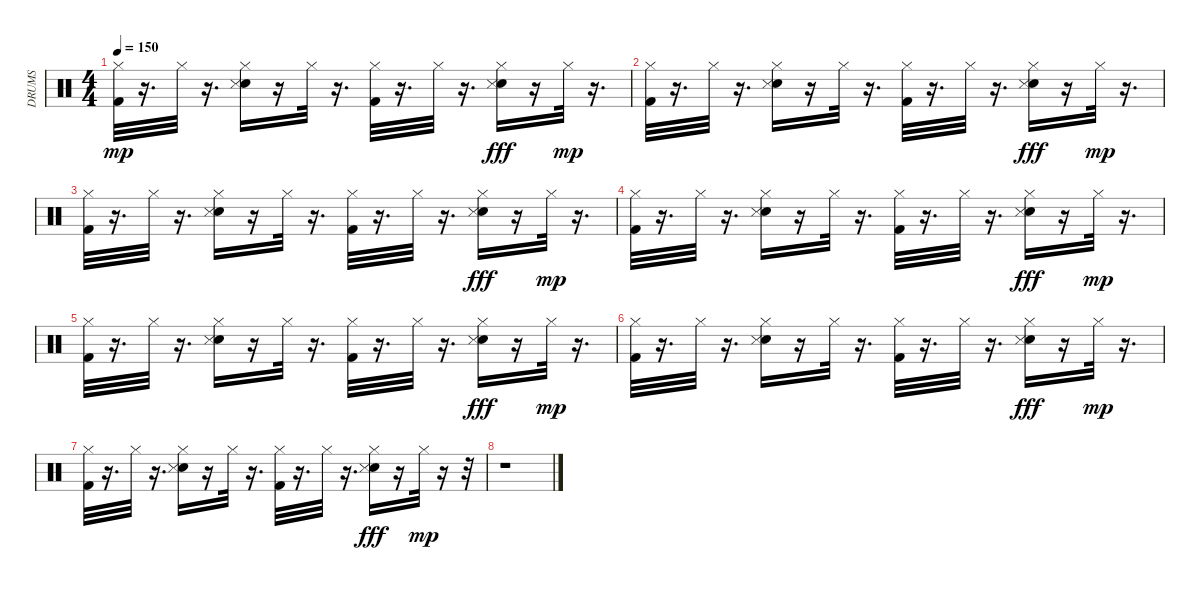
\track ("DRUMS" "DRUMS") {instrument percussion}
\staff {score}
\articulation defaults
\ts (4 4)
\tempo 150
\clef neutral
\ks c
("Hi-Hat (closed)" "Kick (hit) 2").32{dy mp} r.16{d} "Hi-Hat (closed)".32 r.16{d} ("Snare (hit) 2" "Snare (side stick) 3" "Hi-Hat (closed)").16 r.16 "Hi-Hat (closed)".32 r.16{d} ("Kick (hit) 2" "Hi-Hat (closed)").32 r.16{d} "Hi-Hat (closed)".32 r.16{d} ("Snare (hit) 2" "Hi-Hat (closed)" "Snare (side stick) 3").16{dy fff} r.16 "Hi-Hat (closed)".32{dy mp} r.16{d} |
("Hi-Hat (closed)" "Kick (hit) 2").32 r.16{d} "Hi-Hat (closed)".32 r.16{d} ("Snare (hit) 2" "Snare (side stick) 3" "Hi-Hat (closed)").16 r.16 "Hi-Hat (closed)".32 r.16{d} ("Kick (hit) 2" "Hi-Hat (closed)").32 r.16{d} "Hi-Hat (closed)".32 r.16{d} ("Snare (hit) 2" "Hi-Hat (closed)" "Snare (side stick) 3").16{dy fff} r.16 "Hi-Hat (closed)".32{dy mp} r.16{d} |
("Hi-Hat (closed)" "Kick (hit) 2").32 r.16{d} "Hi-Hat (closed)".32 r.16{d} ("Snare (hit) 2" "Snare (side stick) 3" "Hi-Hat (closed)").16 r.16 "Hi-Hat (closed)".32 r.16{d} ("Kick (hit) 2" "Hi-Hat (closed)").32 r.16{d} "Hi-Hat (closed)".32 r.16{d} ("Snare (hit) 2" "Hi-Hat (closed)" "Snare (side stick) 3").16{dy fff} r.16 "Hi-Hat (closed)".32{dy mp} r.16{d} |
("Hi-Hat (closed)" "Kick (hit) 2").32 r.16{d} "Hi-Hat (closed)".32 r.16{d} ("Snare (hit) 2" "Snare (side stick) 3" "Hi-Hat (closed)").16 r.16 "Hi-Hat (closed)".32 r.16{d} ("Kick (hit) 2" "Hi-Hat (closed)").32 r.16{d} "Hi-Hat (closed)".32 r.16{d} ("Snare (hit) 2" "Hi-Hat (closed)" "Snare (side stick) 3").16{dy fff} r.16 "Hi-Hat (closed)".32{dy mp} r.16{d} |
("Hi-Hat (closed)" "Kick (hit) 2").32 r.16{d} "Hi-Hat (closed)".32 r.16{d} ("Snare (hit) 2" "Snare (side stick) 3" "Hi-Hat (closed)").16 r.16 "Hi-Hat (closed)".32 r.16{d} ("Kick (hit) 2" "Hi-Hat (closed)").32 r.16{d} "Hi-Hat (closed)".32 r.16{d} ("Snare (hit) 2" "Hi-Hat (closed)" "Snare (side stick) 3").16{dy fff} r.16 "Hi-Hat (closed)".32{dy mp} r.16{d} |
("Hi-Hat (closed)" "Kick (hit) 2").32 r.16{d} "Hi-Hat (closed)".32 r.16{d} ("Snare (hit) 2" "Snare (side stick) 3" "Hi-Hat (closed)").16 r.16 "Hi-Hat (closed)".32 r.16{d} ("Kick (hit) 2" "Hi-Hat (closed)").32 r.16{d} "Hi-Hat (closed)".32 r.16{d} ("Snare (hit) 2" "Hi-Hat (closed)" "Snare (side stick) 3").16{dy fff} r.16 "Hi-Hat (closed)".32{dy mp} r.16{d} |
("Hi-Hat (closed)" "Kick (hit) 2").32 r.16{d} "Hi-Hat (closed)".32 r.16{d} ("Snare (hit) 2" "Snare (side stick) 3" "Hi-Hat (closed)").16 r.16 "Hi-Hat (closed)".32 r.16{d} ("Kick (hit) 2" "Hi-Hat (closed)").32 r.16{d} "Hi-Hat (closed)".32 r.16{d} ("Snare (hit) 2" "Hi-Hat (closed)" "Snare (side stick) 3").16{dy fff} r.16 "Hi-Hat (closed)".32{dy mp} r.16 r.32 |
r.1
